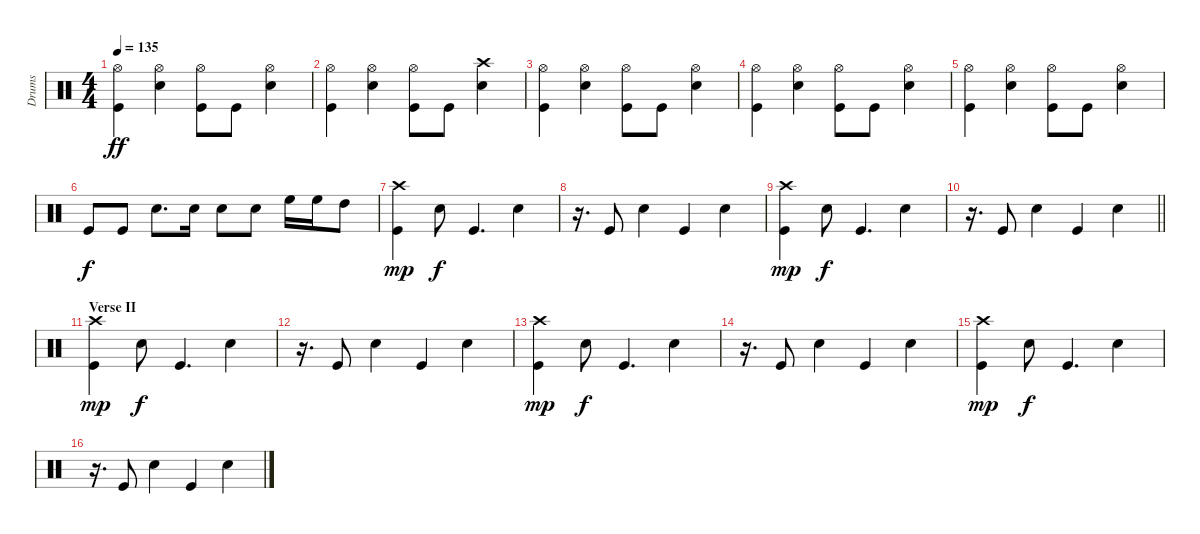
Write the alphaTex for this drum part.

\track ("Drums" "Drums") {instrument percussion}
\staff {score}
\articulation defaults
\ts (4 4)
\tempo 135
\clef neutral
\ks c
("Kick (hit)" "Hi-Hat (open)").4{dy ff} ("Snare (hit) 2" "Hi-Hat (open)").4 ("Kick (hit)" "Hi-Hat (open)").8 "Kick (hit)".8 ("Snare (hit) 2" "Hi-Hat (open)").4 |
("Kick (hit)" "Hi-Hat (open)").4 ("Snare (hit) 2" "Hi-Hat (open)").4 ("Kick (hit)" "Hi-Hat (open)").8 "Kick (hit)".8 ("Snare (hit) 2" "Crash high (hit)").4 |
("Kick (hit)" "Hi-Hat (open)").4 ("Snare (hit) 2" "Hi-Hat (open)").4 ("Kick (hit)" "Hi-Hat (open)").8 "Kick (hit)".8 ("Snare (hit) 2" "Hi-Hat (open)").4 |
("Kick (hit)" "Hi-Hat (open)").4 ("Snare (hit) 2" "Hi-Hat (open)").4 ("Kick (hit)" "Hi-Hat (open)").8 "Kick (hit)".8 ("Snare (hit) 2" "Hi-Hat (open)").4 |
("Kick (hit)" "Hi-Hat (open)").4 ("Snare (hit) 2" "Hi-Hat (open)").4 ("Kick (hit)" "Hi-Hat (open)").8 "Kick (hit)".8 ("Snare (hit) 2" "Hi-Hat (open)").4 |
"Kick (hit)".8{dy f} "Kick (hit)".8 "Snare (hit) 2".8{d} "Snare (hit) 2".16 "Snare (hit) 2".8 "Snare (hit) 2".8 "High Floor Tom (hit)".16 "High Floor Tom (hit)".16 "High Tom (hit)".8 |
("Kick (hit)" "Crash high (hit)").4{dy mp} "Snare (hit) 2".8{dy f} "Kick (hit)".4{d} "Snare (hit) 2".4 |
r.16{d} "Kick (hit)".8 "Snare (hit) 2".4 "Kick (hit)".4 "Snare (hit) 2".4 |
("Kick (hit)" "Crash high (hit)").4{dy mp} "Snare (hit) 2".8{dy f} "Kick (hit)".4{d} "Snare (hit) 2".4 |
\barLineRight lightlight
r.16{d} "Kick (hit)".8 "Snare (hit) 2".4 "Kick (hit)".4 "Snare (hit) 2".4 |
\section ("" "Verse II")
("Kick (hit)" "Crash high (hit)").4{dy mp} "Snare (hit) 2".8{dy f} "Kick (hit)".4{d} "Snare (hit) 2".4 |
r.16{d} "Kick (hit)".8 "Snare (hit) 2".4 "Kick (hit)".4 "Snare (hit) 2".4 |
("Kick (hit)" "Crash high (hit)").4{dy mp} "Snare (hit) 2".8{dy f} "Kick (hit)".4{d} "Snare (hit) 2".4 |
r.16{d} "Kick (hit)".8 "Snare (hit) 2".4 "Kick (hit)".4 "Snare (hit) 2".4 |
("Kick (hit)" "Crash high (hit)").4{dy mp} "Snare (hit) 2".8{dy f} "Kick (hit)".4{d} "Snare (hit) 2".4 |
r.16{d} "Kick (hit)".8 "Snare (hit) 2".4 "Kick (hit)".4 "Snare (hit) 2".4
